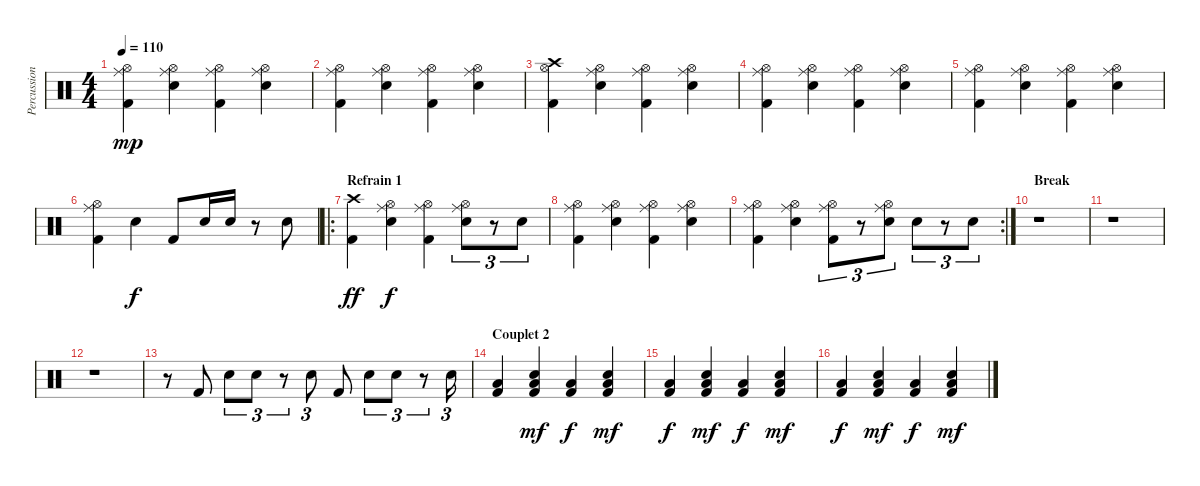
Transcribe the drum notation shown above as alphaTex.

\track ("Percussions" "Percussion") {instrument percussion}
\staff {score}
\articulation defaults
\ts (4 4)
\tempo 110
\clef neutral
\ks c
("Ride (middle)" "Hi-Hat (open)" "Kick (hit) 2").4{dy mp} ("Ride (middle)" "Hi-Hat (open)" "Electric Snare (hit)").4 ("Ride (middle)" "Hi-Hat (open)" "Kick (hit) 2").4 ("Ride (middle)" "Hi-Hat (open)" "Electric Snare (hit)").4 |
("Ride (middle)" "Hi-Hat (open)" "Kick (hit) 2").4 ("Ride (middle)" "Hi-Hat (open)" "Electric Snare (hit)").4 ("Ride (middle)" "Hi-Hat (open)" "Kick (hit) 2").4 ("Ride (middle)" "Hi-Hat (open)" "Electric Snare (hit)").4 |
("Crash high (hit)" "Hi-Hat (open)" "Kick (hit) 2").4 ("Ride (middle)" "Hi-Hat (open)" "Electric Snare (hit)").4 ("Ride (middle)" "Hi-Hat (open)" "Kick (hit) 2").4 ("Ride (middle)" "Hi-Hat (open)" "Electric Snare (hit)").4 |
("Ride (middle)" "Hi-Hat (open)" "Kick (hit) 2").4 ("Ride (middle)" "Hi-Hat (open)" "Electric Snare (hit)").4 ("Ride (middle)" "Hi-Hat (open)" "Kick (hit) 2").4 ("Ride (middle)" "Hi-Hat (open)" "Electric Snare (hit)").4 |
("Ride (middle)" "Hi-Hat (open)" "Kick (hit) 2").4 ("Ride (middle)" "Hi-Hat (open)" "Electric Snare (hit)").4 ("Ride (middle)" "Hi-Hat (open)" "Kick (hit) 2").4 ("Ride (middle)" "Hi-Hat (open)" "Electric Snare (hit)").4 |
("Ride (middle)" "Hi-Hat (open)" "Kick (hit) 2").4 "Electric Snare (hit)".4{dy f} "Kick (hit) 2".8 "Electric Snare (hit)".16 "Electric Snare (hit)".16 r.8 "Electric Snare (hit)".8 |
\ro
\section ("" "Refrain 1")
("Crash high (hit)" "Kick (hit) 2").4{dy ff} ("Ride (middle)" "Hi-Hat (open)" "Electric Snare (hit)").4{dy f} ("Ride (middle)" "Hi-Hat (open)" "Kick (hit) 2").4 ("Ride (middle)" "Hi-Hat (open)" "Electric Snare (hit)").8{tu (3 2)} r.8{tu (3 2)} "Electric Snare (hit)".8{tu (3 2)} |
("Ride (middle)" "Hi-Hat (open)" "Kick (hit) 2").4 ("Ride (middle)" "Hi-Hat (open)" "Electric Snare (hit)").4 ("Ride (middle)" "Hi-Hat (open)" "Kick (hit) 2").4 ("Ride (middle)" "Hi-Hat (open)" "Electric Snare (hit)").4 |
\rc 2
("Ride (middle)" "Hi-Hat (open)" "Kick (hit) 2").4 ("Ride (middle)" "Hi-Hat (open)" "Electric Snare (hit)").4 ("Ride (middle)" "Hi-Hat (open)" "Kick (hit) 2").8{tu (3 2)} r.8{tu (3 2)} ("Ride (middle)" "Hi-Hat (open)" "Electric Snare (hit)").8{tu (3 2)} "Electric Snare (hit)".8{tu (3 2)} r.8{tu (3 2)} "Electric Snare (hit)".8{tu (3 2)} |
\section ("" "Break")
r.1 |
r.1 |
r.1 |
r.8 "Kick (hit) 2".8 "Electric Snare (hit)".8{tu (3 2)} "Electric Snare (hit)".8{tu (3 2)} r.8{tu (3 2)} "Electric Snare (hit)".8{tu (3 2)} "Kick (hit) 2".8 "Electric Snare (hit)".8{tu (3 2)} "Electric Snare (hit)".8{tu (3 2)} r.8{tu (3 2)} "Electric Snare (hit)".16{tu (3 2)} |
\section ("" "Couplet 2")
("Kick (hit) 2" "Low Floor Tom (hit)").4 ("Snare (hit) 2" "Kick (hit) 2" "Low Floor Tom (hit)").4{dy mf} ("Kick (hit) 2" "Low Floor Tom (hit)").4{dy f} ("Snare (hit) 2" "Kick (hit) 2" "Low Floor Tom (hit)").4{dy mf} |
("Kick (hit) 2" "Low Floor Tom (hit)").4{dy f} ("Snare (hit) 2" "Kick (hit) 2" "Low Floor Tom (hit)").4{dy mf} ("Kick (hit) 2" "Low Floor Tom (hit)").4{dy f} ("Snare (hit) 2" "Kick (hit) 2" "Low Floor Tom (hit)").4{dy mf} |
("Kick (hit) 2" "Low Floor Tom (hit)").4{dy f} ("Snare (hit) 2" "Kick (hit) 2" "Low Floor Tom (hit)").4{dy mf} ("Kick (hit) 2" "Low Floor Tom (hit)").4{dy f} ("Snare (hit) 2" "Kick (hit) 2" "Low Floor Tom (hit)").4{dy mf}
